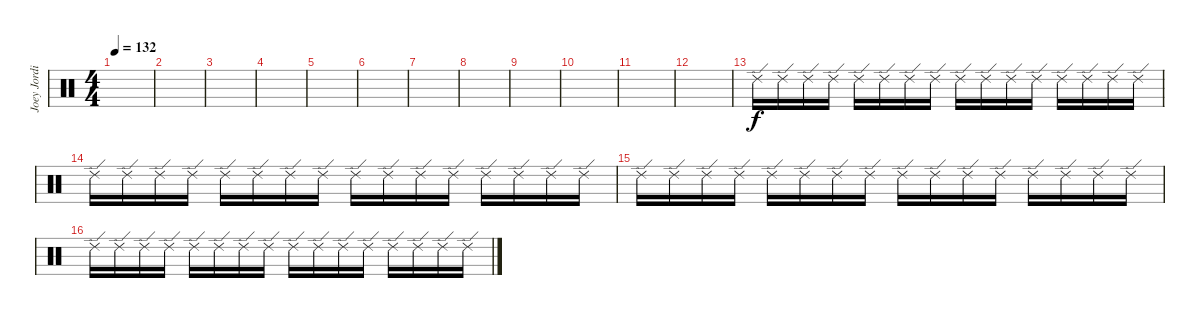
\track ("Joey Jordison" "Joey Jordi") {instrument percussion}
\staff {score}
\articulation defaults
\ts (4 4)
\tempo 132
\clef neutral
\ks c
|
|
|
|
|
|
|
|
|
|
|
|
"Ride (edge) 2".16 "Ride (edge) 2".16 "Ride (edge) 2".16 "Ride (edge) 2".16 "Ride (edge) 2".16 "Ride (edge) 2".16 "Ride (edge) 2".16 "Ride (edge) 2".16 "Ride (edge) 2".16 "Ride (edge) 2".16 "Ride (edge) 2".16 "Ride (edge) 2".16 "Ride (edge) 2".16 "Ride (edge) 2".16 "Ride (edge) 2".16 "Ride (edge) 2".16 |
"Ride (edge) 2".16 "Ride (edge) 2".16 "Ride (edge) 2".16 "Ride (edge) 2".16 "Ride (edge) 2".16 "Ride (edge) 2".16 "Ride (edge) 2".16 "Ride (edge) 2".16 "Ride (edge) 2".16 "Ride (edge) 2".16 "Ride (edge) 2".16 "Ride (edge) 2".16 "Ride (edge) 2".16 "Ride (edge) 2".16 "Ride (edge) 2".16 "Ride (edge) 2".16 |
"Ride (edge) 2".16 "Ride (edge) 2".16 "Ride (edge) 2".16 "Ride (edge) 2".16 "Ride (edge) 2".16 "Ride (edge) 2".16 "Ride (edge) 2".16 "Ride (edge) 2".16 "Ride (edge) 2".16 "Ride (edge) 2".16 "Ride (edge) 2".16 "Ride (edge) 2".16 "Ride (edge) 2".16 "Ride (edge) 2".16 "Ride (edge) 2".16 "Ride (edge) 2".16 |
"Ride (edge) 2".16 "Ride (edge) 2".16 "Ride (edge) 2".16 "Ride (edge) 2".16 "Ride (edge) 2".16 "Ride (edge) 2".16 "Ride (edge) 2".16 "Ride (edge) 2".16 "Ride (edge) 2".16 "Ride (edge) 2".16 "Ride (edge) 2".16 "Ride (edge) 2".16 "Ride (edge) 2".16 "Ride (edge) 2".16 "Ride (edge) 2".16 "Ride (edge) 2".16
